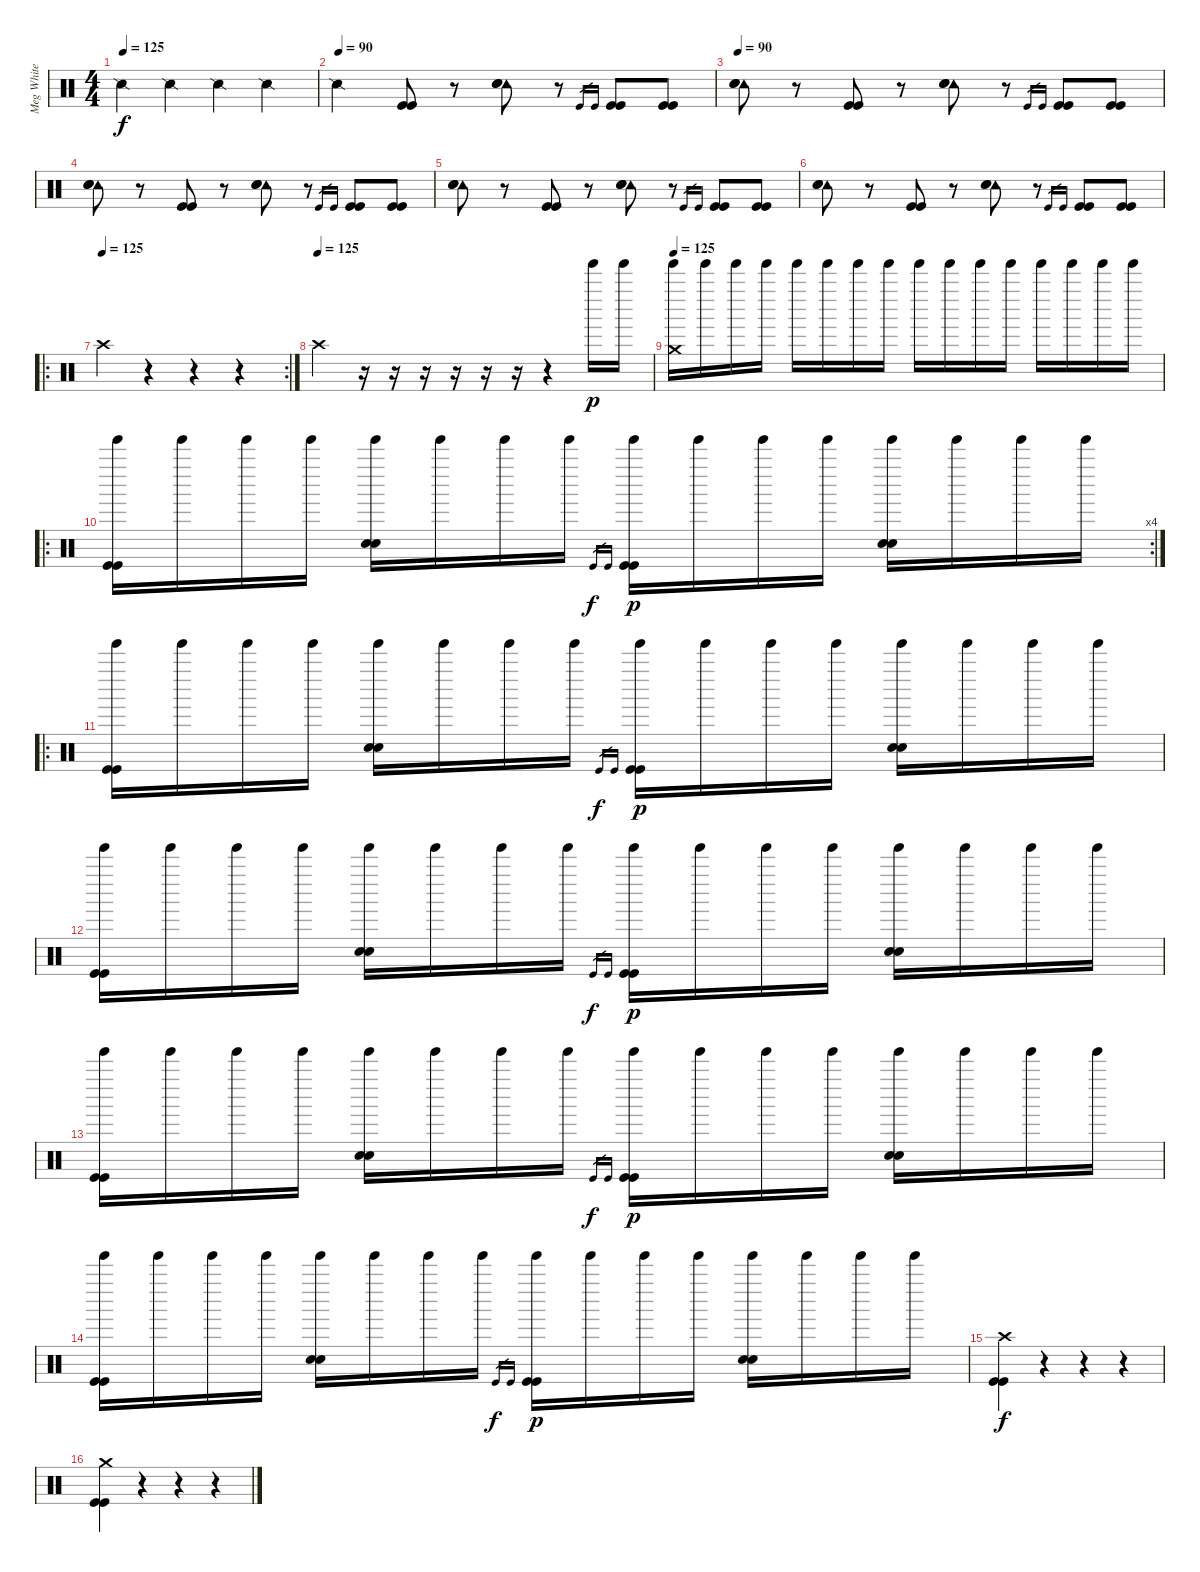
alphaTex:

\track ("Meg White" "Meg White") {instrument percussion}
\staff {score}
\articulation defaults
\ts (4 4)
\tempo 125
\clef neutral
\ks c "Snare (side stick) 2".4{dy f} "Snare (side stick) 2".4 "Snare (side stick) 2".4 "Snare (side stick) 2".4
|
\tempo (90)
"Snare (side stick) 2".4 ("Kick (hit)" "Kick (hit)").8 r.8 ("Tambourine (hit)" "Snare (hit) 2" "Snare (hit) 2").8 r.8 "Kick (hit)".16{gr} "Kick (hit)".16{gr} ("Kick (hit)" "Kick (hit)").8 ("Kick (hit)" "Kick (hit)").8 |
\tempo 90
("Tambourine (hit)" "Snare (hit) 2" "Snare (hit) 2").8 r.8 ("Kick (hit)" "Kick (hit)").8 r.8 ("Tambourine (hit)" "Snare (hit) 2" "Snare (hit) 2").8 r.8 "Kick (hit)".16{gr} "Kick (hit)".16{gr} ("Kick (hit)" "Kick (hit)").8 ("Kick (hit)" "Kick (hit)").8 |
("Tambourine (hit)" "Snare (hit) 2" "Snare (hit) 2").8 r.8 ("Kick (hit)" "Kick (hit)").8 r.8 ("Tambourine (hit)" "Snare (hit) 2" "Snare (hit) 2").8 r.8 "Kick (hit)".16{gr} "Kick (hit)".16{gr} ("Kick (hit)" "Kick (hit)").8 ("Kick (hit)" "Kick (hit)").8 |
("Tambourine (hit)" "Snare (hit) 2" "Snare (hit) 2").8 r.8 ("Kick (hit)" "Kick (hit)").8 r.8 ("Tambourine (hit)" "Snare (hit) 2" "Snare (hit) 2").8 r.8 "Kick (hit)".16{gr} "Kick (hit)".16{gr} ("Kick (hit)" "Kick (hit)").8 ("Kick (hit)" "Kick (hit)").8 |
("Tambourine (hit)" "Snare (hit) 2" "Snare (hit) 2").8 r.8 ("Kick (hit)" "Kick (hit)").8 r.8 ("Tambourine (hit)" "Snare (hit) 2" "Snare (hit) 2").8 r.8 "Kick (hit)".16{gr} "Kick (hit)".16{gr} ("Kick (hit)" "Kick (hit)").8 ("Kick (hit)" "Kick (hit)").8 |
\ro
\rc 2
\tempo (125)
"Crash high (hit)".4 r.4 r.4 r.4 |
\tempo (125)
"Crash high (hit)".4 r.16 r.16 r.16 r.16 r.16 r.16 r.4 "Tinkle Bell (hit)".16{dy p} "Tinkle Bell (hit)".16 |
\tempo 125
("Tinkle Bell (hit)" "Crash medium (hit)").16 "Tinkle Bell (hit)".16 "Tinkle Bell (hit)".16 "Tinkle Bell (hit)".16 "Tinkle Bell (hit)".16 "Tinkle Bell (hit)".16 "Tinkle Bell (hit)".16 "Tinkle Bell (hit)".16 "Tinkle Bell (hit)".16 "Tinkle Bell (hit)".16 "Tinkle Bell (hit)".16 "Tinkle Bell (hit)".16 "Tinkle Bell (hit)".16 "Tinkle Bell (hit)".16 "Tinkle Bell (hit)".16 "Tinkle Bell (hit)".16 |
\ro
\rc 4
("Tinkle Bell (hit)" "Kick (hit)" "Kick (hit)").16 "Tinkle Bell (hit)".16 "Tinkle Bell (hit)".16 "Tinkle Bell (hit)".16 ("Tinkle Bell (hit)" "Snare (hit) 2" "Snare (hit) 2").16 "Tinkle Bell (hit)".16 "Tinkle Bell (hit)".16 "Tinkle Bell (hit)".16 "Kick (hit)".16{gr dy f} "Kick (hit)".16{gr} ("Tinkle Bell (hit)" "Kick (hit)" "Kick (hit)").16{dy p} "Tinkle Bell (hit)".16 "Tinkle Bell (hit)".16 "Tinkle Bell (hit)".16 ("Tinkle Bell (hit)" "Snare (hit) 2" "Snare (hit) 2").16 "Tinkle Bell (hit)".16 "Tinkle Bell (hit)".16 "Tinkle Bell (hit)".16 |
\ro
("Tinkle Bell (hit)" "Kick (hit)" "Kick (hit)").16 "Tinkle Bell (hit)".16 "Tinkle Bell (hit)".16 "Tinkle Bell (hit)".16 ("Tinkle Bell (hit)" "Snare (hit) 2" "Snare (hit) 2").16 "Tinkle Bell (hit)".16 "Tinkle Bell (hit)".16 "Tinkle Bell (hit)".16 "Kick (hit)".16{gr dy f} "Kick (hit)".16{gr} ("Tinkle Bell (hit)" "Kick (hit)" "Kick (hit)").16{dy p} "Tinkle Bell (hit)".16 "Tinkle Bell (hit)".16 "Tinkle Bell (hit)".16 ("Tinkle Bell (hit)" "Snare (hit) 2" "Snare (hit) 2").16 "Tinkle Bell (hit)".16 "Tinkle Bell (hit)".16 "Tinkle Bell (hit)".16 |
("Tinkle Bell (hit)" "Kick (hit)" "Kick (hit)").16 "Tinkle Bell (hit)".16 "Tinkle Bell (hit)".16 "Tinkle Bell (hit)".16 ("Tinkle Bell (hit)" "Snare (hit) 2" "Snare (hit) 2").16 "Tinkle Bell (hit)".16 "Tinkle Bell (hit)".16 "Tinkle Bell (hit)".16 "Kick (hit)".16{gr dy f} "Kick (hit)".16{gr} ("Tinkle Bell (hit)" "Kick (hit)" "Kick (hit)").16{dy p} "Tinkle Bell (hit)".16 "Tinkle Bell (hit)".16 "Tinkle Bell (hit)".16 ("Tinkle Bell (hit)" "Snare (hit) 2" "Snare (hit) 2").16 "Tinkle Bell (hit)".16 "Tinkle Bell (hit)".16 "Tinkle Bell (hit)".16 |
("Tinkle Bell (hit)" "Kick (hit)" "Kick (hit)").16 "Tinkle Bell (hit)".16 "Tinkle Bell (hit)".16 "Tinkle Bell (hit)".16 ("Tinkle Bell (hit)" "Snare (hit) 2" "Snare (hit) 2").16 "Tinkle Bell (hit)".16 "Tinkle Bell (hit)".16 "Tinkle Bell (hit)".16 "Kick (hit)".16{gr dy f} "Kick (hit)".16{gr} ("Tinkle Bell (hit)" "Kick (hit)" "Kick (hit)").16{dy p} "Tinkle Bell (hit)".16 "Tinkle Bell (hit)".16 "Tinkle Bell (hit)".16 ("Tinkle Bell (hit)" "Snare (hit) 2" "Snare (hit) 2").16 "Tinkle Bell (hit)".16 "Tinkle Bell (hit)".16 "Tinkle Bell (hit)".16 |
("Tinkle Bell (hit)" "Kick (hit)" "Kick (hit)").16 "Tinkle Bell (hit)".16 "Tinkle Bell (hit)".16 "Tinkle Bell (hit)".16 ("Tinkle Bell (hit)" "Snare (hit) 2" "Snare (hit) 2").16 "Tinkle Bell (hit)".16 "Tinkle Bell (hit)".16 "Tinkle Bell (hit)".16 "Kick (hit)".16{gr dy f} "Kick (hit)".16{gr} ("Tinkle Bell (hit)" "Kick (hit)" "Kick (hit)").16{dy p} "Tinkle Bell (hit)".16 "Tinkle Bell (hit)".16 "Tinkle Bell (hit)".16 ("Tinkle Bell (hit)" "Snare (hit) 2" "Snare (hit) 2").16 "Tinkle Bell (hit)".16 "Tinkle Bell (hit)".16 "Tinkle Bell (hit)".16 |
("Crash high (hit)" "Kick (hit)" "Kick (hit)").4{dy f} r.4 r.4 r.4 |
("Crash medium (hit)" "Kick (hit)" "Kick (hit)").4 r.4 r.4 r.4
